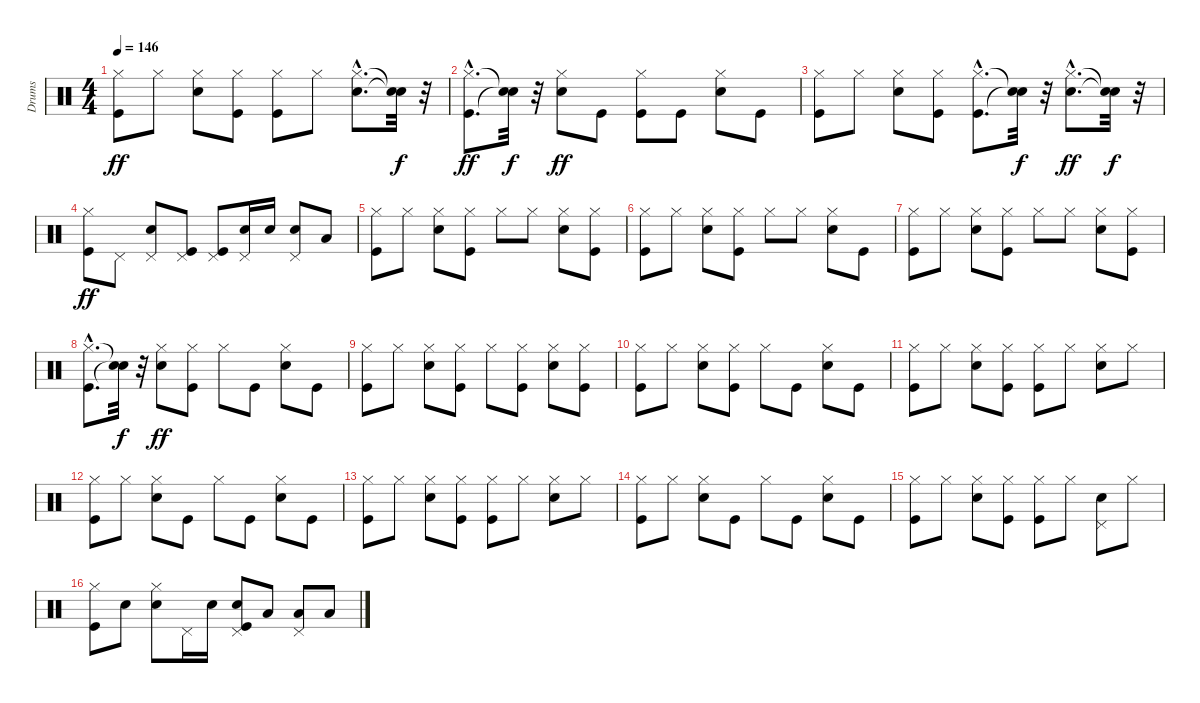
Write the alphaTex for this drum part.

\track ("Drums" "Drums") {instrument percussion}
\staff {score}
\articulation defaults
\ts (4 4)
\tempo 146
\clef neutral
\ks c
("Kick (hit)" "Hi-Hat (closed)").8{dy ff} "Hi-Hat (closed)".8 ("Snare (hit) 2" "Hi-Hat (closed)").8 ("Kick (hit)" "Hi-Hat (closed)").8 ("Kick (hit)" "Hi-Hat (closed)").8 "Hi-Hat (closed)".8 ("Snare (hit) 2"{hac} "Hi-Hat (closed)"{hac}).8{d} ("Snare (hit)"{t} "Snare (hit)"{t}).32{dy f} r.32 |
("Kick (hit)"{hac} "Hi-Hat (closed)"{hac}).8{d dy ff} ("Snare (hit)"{t} "Snare (hit)"{t}).32{dy f} r.32 ("Snare (hit) 2" "Hi-Hat (closed)").8{dy ff} "Kick (hit)".8 ("Kick (hit)" "Hi-Hat (closed)").8 "Kick (hit)".8 ("Snare (hit) 2" "Hi-Hat (closed)").8 "Kick (hit)".8 |
("Kick (hit)" "Hi-Hat (closed)").8 "Hi-Hat (closed)".8 ("Snare (hit) 2" "Hi-Hat (closed)").8 ("Kick (hit)" "Hi-Hat (closed)").8 ("Kick (hit)"{hac} "Hi-Hat (closed)"{hac}).8{d} ("Snare (hit)"{t} "Snare (hit)"{t}).32{dy f} r.32 ("Snare (hit) 2"{hac} "Hi-Hat (closed)"{hac}).8{d dy ff} ("Snare (hit)"{t} "Snare (hit)"{t}).32{dy f} r.32 |
("Kick (hit)" "Hi-Hat (closed)").8{dy ff} "Pedal Hi-Hat (hit)".8 ("Snare (hit) 2" "Pedal Hi-Hat (hit)").8 ("Kick (hit)" "Pedal Hi-Hat (hit)").8 ("Kick (hit)" "Pedal Hi-Hat (hit)").8 ("Snare (hit) 2" "Pedal Hi-Hat (hit)").16 "Snare (hit) 2".16 ("Snare (hit) 2" "Pedal Hi-Hat (hit)").8 "Low Floor Tom (hit)".8 |
("Kick (hit)" "Hi-Hat (closed)").8 "Hi-Hat (closed)".8 ("Snare (hit) 2" "Hi-Hat (closed)").8 ("Kick (hit)" "Hi-Hat (closed)").8 "Hi-Hat (closed)".8 "Hi-Hat (closed)".8 ("Snare (hit) 2" "Hi-Hat (closed)").8 ("Kick (hit)" "Hi-Hat (closed)").8 |
("Kick (hit)" "Hi-Hat (closed)").8 "Hi-Hat (closed)".8 ("Snare (hit) 2" "Hi-Hat (closed)").8 ("Kick (hit)" "Hi-Hat (closed)").8 "Hi-Hat (closed)".8 "Hi-Hat (closed)".8 ("Snare (hit) 2" "Hi-Hat (closed)").8 "Kick (hit)".8 |
("Kick (hit)" "Hi-Hat (closed)").8 "Hi-Hat (closed)".8 ("Snare (hit) 2" "Hi-Hat (closed)").8 ("Kick (hit)" "Hi-Hat (closed)").8 "Hi-Hat (closed)".8 "Hi-Hat (closed)".8 ("Snare (hit) 2" "Hi-Hat (closed)").8 ("Kick (hit)" "Hi-Hat (closed)").8 |
("Kick (hit)"{hac} "Hi-Hat (closed)"{hac}).8{d} ("Snare (hit)"{t} "Snare (hit)"{t}).32{dy f} r.32 ("Snare (hit) 2" "Hi-Hat (closed)").8{dy ff} ("Kick (hit)" "Hi-Hat (closed)").8 "Hi-Hat (closed)".8 "Kick (hit)".8 ("Snare (hit) 2" "Hi-Hat (closed)").8 "Kick (hit)".8 |
("Kick (hit)" "Hi-Hat (closed)").8 "Hi-Hat (closed)".8 ("Snare (hit) 2" "Hi-Hat (closed)").8 ("Kick (hit)" "Hi-Hat (closed)").8 "Hi-Hat (closed)".8 ("Kick (hit)" "Hi-Hat (closed)").8 ("Snare (hit) 2" "Hi-Hat (closed)").8 ("Kick (hit)" "Hi-Hat (closed)").8 |
("Kick (hit)" "Hi-Hat (closed)").8 "Hi-Hat (closed)".8 ("Snare (hit) 2" "Hi-Hat (closed)").8 ("Kick (hit)" "Hi-Hat (closed)").8 "Hi-Hat (closed)".8 "Kick (hit)".8 ("Snare (hit) 2" "Hi-Hat (closed)").8 "Kick (hit)".8 |
("Kick (hit)" "Hi-Hat (closed)").8 "Hi-Hat (closed)".8 ("Snare (hit) 2" "Hi-Hat (closed)").8 ("Kick (hit)" "Hi-Hat (closed)").8 ("Kick (hit)" "Hi-Hat (closed)").8 "Hi-Hat (closed)".8 ("Snare (hit) 2" "Hi-Hat (closed)").8 "Hi-Hat (closed)".8 |
("Kick (hit)" "Hi-Hat (closed)").8 "Hi-Hat (closed)".8 ("Snare (hit) 2" "Hi-Hat (closed)").8 "Kick (hit)".8 "Hi-Hat (closed)".8 "Kick (hit)".8 ("Snare (hit) 2" "Hi-Hat (closed)").8 "Kick (hit)".8 |
("Kick (hit)" "Hi-Hat (closed)").8 "Hi-Hat (closed)".8 ("Snare (hit) 2" "Hi-Hat (closed)").8 ("Kick (hit)" "Hi-Hat (closed)").8 ("Kick (hit)" "Hi-Hat (closed)").8 "Hi-Hat (closed)".8 ("Snare (hit) 2" "Hi-Hat (closed)").8 "Hi-Hat (closed)".8 |
("Kick (hit)" "Hi-Hat (closed)").8 "Hi-Hat (closed)".8 ("Snare (hit) 2" "Hi-Hat (closed)").8 "Kick (hit)".8 "Hi-Hat (closed)".8 "Kick (hit)".8 ("Snare (hit) 2" "Hi-Hat (closed)").8 "Kick (hit)".8 |
("Kick (hit)" "Hi-Hat (closed)").8 "Hi-Hat (closed)".8 ("Snare (hit) 2" "Hi-Hat (closed)").8 ("Kick (hit)" "Hi-Hat (closed)").8 ("Kick (hit)" "Hi-Hat (closed)").8 "Hi-Hat (closed)".8 ("Snare (hit) 2" "Pedal Hi-Hat (hit)").8 "Hi-Hat (closed)".8 |
("Kick (hit)" "Hi-Hat (closed)").8 "Snare (hit) 2".8 ("Snare (hit) 2" "Hi-Hat (closed)").8 "Pedal Hi-Hat (hit)".16 "Snare (hit) 2".16 ("Kick (hit)" "Snare (hit) 2" "Pedal Hi-Hat (hit)").8 "Low Tom (hit)".8 ("Low Floor Tom (hit)" "Pedal Hi-Hat (hit)").8 "Low Floor Tom (hit)".8
